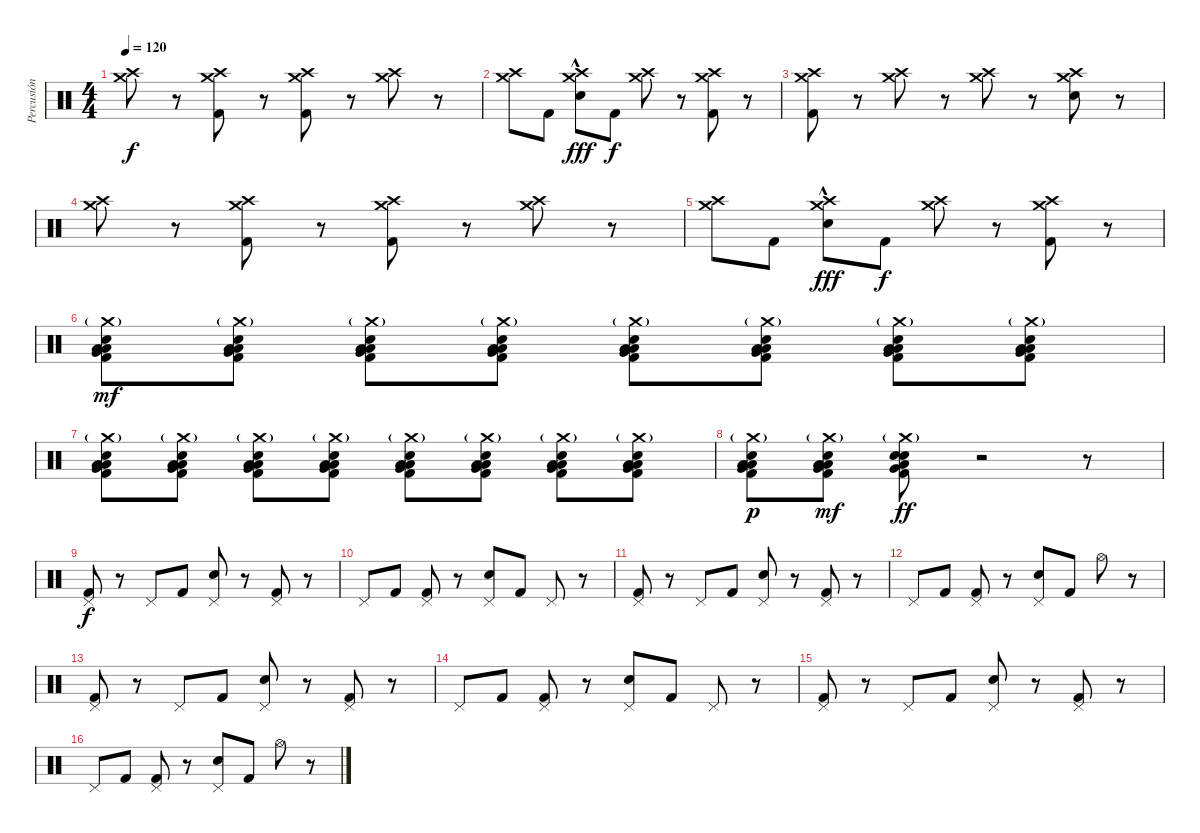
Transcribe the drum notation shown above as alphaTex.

\track ("Percusión" "Percusión") {instrument percussion}
\staff {score}
\articulation defaults
\ts (4 4)
\tempo 120
\clef neutral
\ks c
("Crash high (hit)" "Crash medium (hit)").8{dy f} r.8 ("Crash high (hit)" "Crash medium (hit)" "Kick (hit) 2").8 r.8 ("Crash high (hit)" "Crash medium (hit)" "Kick (hit) 2").8 r.8 ("Crash high (hit)" "Crash medium (hit)").8 r.8 |
("Crash high (hit)" "Crash medium (hit)").8 "Kick (hit) 2".8 ("Crash medium (hit)" "Crash high (hit)" "Snare (hit) 2"{hac}).8{dy fff} "Kick (hit) 2".8{dy f} ("Crash medium (hit)" "Crash high (hit)").8 r.8 ("Crash medium (hit)" "Crash high (hit)" "Kick (hit) 2").8 r.8 |
("Crash medium (hit)" "Crash high (hit)" "Kick (hit) 2").8 r.8 ("Crash medium (hit)" "Crash high (hit)").8 r.8 ("Crash medium (hit)" "Crash high (hit)").8 r.8 ("Crash medium (hit)" "Crash high (hit)" "Snare (hit) 2").8 r.8 |
("Crash high (hit)" "Crash medium (hit)").8 r.8 ("Crash high (hit)" "Crash medium (hit)" "Kick (hit) 2").8 r.8 ("Crash high (hit)" "Crash medium (hit)" "Kick (hit) 2").8 r.8 ("Crash high (hit)" "Crash medium (hit)").8 r.8 |
("Crash high (hit)" "Crash medium (hit)").8 "Kick (hit) 2".8 ("Crash medium (hit)" "Crash high (hit)" "Snare (hit) 2"{hac}).8{dy fff} "Kick (hit) 2".8{dy f} ("Crash medium (hit)" "Crash high (hit)").8 r.8 ("Crash medium (hit)" "Crash high (hit)" "Kick (hit) 2").8 r.8 |
("Crash medium (hit)"{g} "Very Low Tom (hit)" "Low Tom (hit)" "Low Floor Tom (hit)" "Snare (hit) 2" "Kick (hit) 2").8{dy mf} ("Crash medium (hit)"{g} "Very Low Tom (hit)" "Low Tom (hit)" "Low Floor Tom (hit)" "Snare (hit) 2" "Kick (hit) 2").8 ("Crash medium (hit)"{g} "Very Low Tom (hit)" "Low Tom (hit)" "Low Floor Tom (hit)" "Snare (hit) 2" "Kick (hit) 2").8 ("Crash medium (hit)"{g} "Very Low Tom (hit)" "Low Tom (hit)" "Low Floor Tom (hit)" "Snare (hit) 2" "Kick (hit) 2").8 ("Crash medium (hit)"{g} "Very Low Tom (hit)" "Low Tom (hit)" "Low Floor Tom (hit)" "Snare (hit) 2" "Kick (hit) 2").8 ("Crash medium (hit)"{g} "Very Low Tom (hit)" "Low Tom (hit)" "Low Floor Tom (hit)" "Snare (hit) 2" "Kick (hit) 2").8 ("Crash medium (hit)"{g} "Very Low Tom (hit)" "Low Tom (hit)" "Low Floor Tom (hit)" "Snare (hit) 2" "Kick (hit) 2").8 ("Crash medium (hit)"{g} "Very Low Tom (hit)" "Low Tom (hit)" "Low Floor Tom (hit)" "Snare (hit) 2" "Kick (hit) 2").8 |
("Crash medium (hit)"{g} "Very Low Tom (hit)" "Low Tom (hit)" "Low Floor Tom (hit)" "Snare (hit) 2" "Kick (hit) 2").8 ("Crash medium (hit)"{g} "Very Low Tom (hit)" "Low Tom (hit)" "Low Floor Tom (hit)" "Snare (hit) 2" "Kick (hit) 2").8 ("Crash medium (hit)"{g} "Very Low Tom (hit)" "Low Tom (hit)" "Low Floor Tom (hit)" "Snare (hit) 2" "Kick (hit) 2").8 ("Crash medium (hit)"{g} "Very Low Tom (hit)" "Low Tom (hit)" "Low Floor Tom (hit)" "Snare (hit) 2" "Kick (hit) 2").8 ("Crash medium (hit)"{g} "Very Low Tom (hit)" "Low Tom (hit)" "Low Floor Tom (hit)" "Snare (hit) 2" "Kick (hit) 2").8 ("Crash medium (hit)"{g} "Very Low Tom (hit)" "Low Tom (hit)" "Low Floor Tom (hit)" "Snare (hit) 2" "Kick (hit) 2").8 ("Crash medium (hit)"{g} "Very Low Tom (hit)" "Low Tom (hit)" "Low Floor Tom (hit)" "Snare (hit) 2" "Kick (hit) 2").8 ("Crash medium (hit)"{g} "Very Low Tom (hit)" "Low Tom (hit)" "Low Floor Tom (hit)" "Snare (hit) 2" "Kick (hit) 2").8 |
("Crash medium (hit)"{g} "Very Low Tom (hit)" "Low Tom (hit)" "Low Floor Tom (hit)" "Snare (hit) 2" "Kick (hit) 2").8{dy p} ("Crash medium (hit)"{g} "Very Low Tom (hit)" "Low Tom (hit)" "Low Floor Tom (hit)" "Snare (hit) 2" "Kick (hit) 2").8{dy mf} ("Crash medium (hit)"{g} "Very Low Tom (hit)" "Low Tom (hit)" "Snare (hit)" "Snare (hit) 2" "Kick (hit) 2").8{dy ff} r.2 r.8 |
("Pedal Hi-Hat (hit)" "Kick (hit) 2").8{dy f} r.8 "Pedal Hi-Hat (hit)".8 "Kick (hit) 2".8 ("Pedal Hi-Hat (hit)" "Electric Snare (hit)").8 r.8 ("Pedal Hi-Hat (hit)" "Kick (hit) 2").8 r.8 |
"Pedal Hi-Hat (hit)".8 "Kick (hit) 2".8 ("Pedal Hi-Hat (hit)" "Kick (hit) 2").8 r.8 ("Pedal Hi-Hat (hit)" "Electric Snare (hit)").8 "Kick (hit) 2".8 "Pedal Hi-Hat (hit)".8 r.8 |
("Pedal Hi-Hat (hit)" "Kick (hit) 2").8 r.8 "Pedal Hi-Hat (hit)".8 "Kick (hit) 2".8 ("Pedal Hi-Hat (hit)" "Electric Snare (hit)").8 r.8 ("Pedal Hi-Hat (hit)" "Kick (hit) 2").8 r.8 |
"Pedal Hi-Hat (hit)".8 "Kick (hit) 2".8 ("Pedal Hi-Hat (hit)" "Kick (hit) 2").8 r.8 ("Pedal Hi-Hat (hit)" "Electric Snare (hit)").8 "Kick (hit) 2".8 "Hi-Hat (open)".8 r.8 |
("Pedal Hi-Hat (hit)" "Kick (hit) 2").8 r.8 "Pedal Hi-Hat (hit)".8 "Kick (hit) 2".8 ("Pedal Hi-Hat (hit)" "Electric Snare (hit)").8 r.8 ("Pedal Hi-Hat (hit)" "Kick (hit) 2").8 r.8 |
"Pedal Hi-Hat (hit)".8 "Kick (hit) 2".8 ("Pedal Hi-Hat (hit)" "Kick (hit) 2").8 r.8 ("Pedal Hi-Hat (hit)" "Electric Snare (hit)").8 "Kick (hit) 2".8 "Pedal Hi-Hat (hit)".8 r.8 |
("Pedal Hi-Hat (hit)" "Kick (hit) 2").8 r.8 "Pedal Hi-Hat (hit)".8 "Kick (hit) 2".8 ("Pedal Hi-Hat (hit)" "Electric Snare (hit)").8 r.8 ("Pedal Hi-Hat (hit)" "Kick (hit) 2").8 r.8 |
"Pedal Hi-Hat (hit)".8 "Kick (hit) 2".8 ("Pedal Hi-Hat (hit)" "Kick (hit) 2").8 r.8 ("Pedal Hi-Hat (hit)" "Electric Snare (hit)").8 "Kick (hit) 2".8 "Hi-Hat (open)".8 r.8
